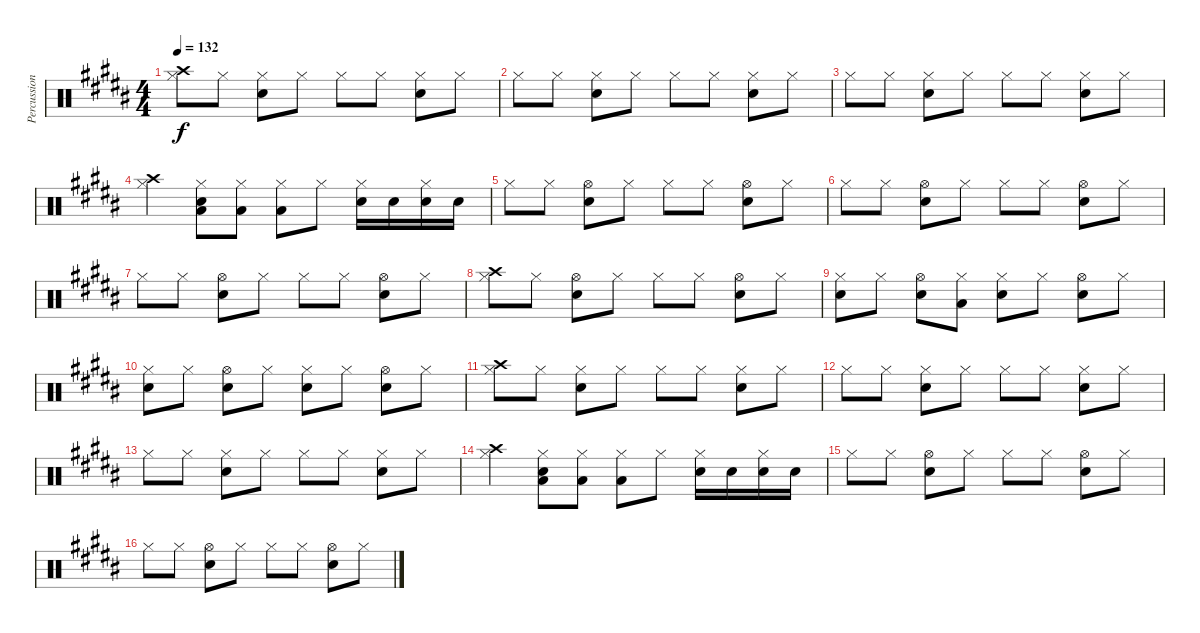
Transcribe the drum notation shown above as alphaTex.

\track ("Percussion (Gelnn Porter)" "Percussion") {instrument percussion}
\staff {score}
\articulation defaults
\ts (4 4)
\tempo 132
\clef neutral
\ks b
("Crash high (hit)" "Hi-Hat (closed)").8{dy f} "Hi-Hat (closed)".8 ("Hi-Hat (closed)" "Snare (hit) 2").8 "Hi-Hat (closed)".8 "Hi-Hat (closed)".8 "Hi-Hat (closed)".8 ("Hi-Hat (closed)" "Snare (hit) 2").8 "Hi-Hat (closed)".8 |
"Hi-Hat (closed)".8 "Hi-Hat (closed)".8 ("Hi-Hat (closed)" "Snare (hit) 2").8 "Hi-Hat (closed)".8 "Hi-Hat (closed)".8 "Hi-Hat (closed)".8 ("Hi-Hat (closed)" "Snare (hit) 2").8 "Hi-Hat (closed)".8 |
"Hi-Hat (closed)".8 "Hi-Hat (closed)".8 ("Hi-Hat (closed)" "Snare (hit) 2").8 "Hi-Hat (closed)".8 "Hi-Hat (closed)".8 "Hi-Hat (closed)".8 ("Hi-Hat (closed)" "Snare (hit) 2").8 "Hi-Hat (closed)".8 |
("Crash high (hit)" "Hi-Hat (closed)").4 ("Hi-Hat (closed)" "Low Tom (hit)" "Snare (hit) 2").8 ("Hi-Hat (closed)" "Low Tom (hit)").8 ("Hi-Hat (closed)" "Low Tom (hit)").8 "Hi-Hat (closed)".8 ("Hi-Hat (closed)" "Snare (hit) 2").16 "Snare (hit) 2".16 ("Hi-Hat (closed)" "Snare (hit) 2").16 "Snare (hit) 2".16 |
"Hi-Hat (closed)".8 "Hi-Hat (closed)".8 ("Hi-Hat (open)" "Snare (hit) 2").8 "Hi-Hat (closed)".8 "Hi-Hat (closed)".8 "Hi-Hat (closed)".8 ("Hi-Hat (open)" "Snare (hit) 2").8 "Hi-Hat (closed)".8 |
"Hi-Hat (closed)".8 "Hi-Hat (closed)".8 ("Hi-Hat (open)" "Snare (hit) 2").8 "Hi-Hat (closed)".8 "Hi-Hat (closed)".8 "Hi-Hat (closed)".8 ("Hi-Hat (open)" "Snare (hit) 2").8 "Hi-Hat (closed)".8 |
"Hi-Hat (closed)".8 "Hi-Hat (closed)".8 ("Hi-Hat (open)" "Snare (hit) 2").8 "Hi-Hat (closed)".8 "Hi-Hat (closed)".8 "Hi-Hat (closed)".8 ("Hi-Hat (open)" "Snare (hit) 2").8 "Hi-Hat (closed)".8 |
("Crash high (hit)" "Hi-Hat (closed)").8 "Hi-Hat (closed)".8 ("Hi-Hat (open)" "Snare (hit) 2").8 "Hi-Hat (closed)".8 "Hi-Hat (closed)".8 "Hi-Hat (closed)".8 ("Hi-Hat (open)" "Snare (hit) 2").8 "Hi-Hat (closed)".8 |
("Hi-Hat (closed)" "Snare (hit) 2").8 "Hi-Hat (closed)".8 ("Hi-Hat (open)" "Snare (hit) 2").8 ("Hi-Hat (closed)" "Low Tom (hit)").8 ("Hi-Hat (closed)" "Snare (hit) 2").8 "Hi-Hat (closed)".8 ("Hi-Hat (open)" "Snare (hit) 2").8 "Hi-Hat (closed)".8 |
("Hi-Hat (closed)" "Snare (hit) 2").8 "Hi-Hat (closed)".8 ("Hi-Hat (open)" "Snare (hit) 2").8 "Hi-Hat (closed)".8 ("Hi-Hat (closed)" "Snare (hit) 2").8 "Hi-Hat (closed)".8 ("Hi-Hat (open)" "Snare (hit) 2").8 "Hi-Hat (closed)".8 |
("Crash high (hit)" "Hi-Hat (closed)").8 "Hi-Hat (closed)".8 ("Hi-Hat (closed)" "Snare (hit) 2").8 "Hi-Hat (closed)".8 "Hi-Hat (closed)".8 "Hi-Hat (closed)".8 ("Hi-Hat (closed)" "Snare (hit) 2").8 "Hi-Hat (closed)".8 |
"Hi-Hat (closed)".8 "Hi-Hat (closed)".8 ("Hi-Hat (closed)" "Snare (hit) 2").8 "Hi-Hat (closed)".8 "Hi-Hat (closed)".8 "Hi-Hat (closed)".8 ("Hi-Hat (closed)" "Snare (hit) 2").8 "Hi-Hat (closed)".8 |
"Hi-Hat (closed)".8 "Hi-Hat (closed)".8 ("Hi-Hat (closed)" "Snare (hit) 2").8 "Hi-Hat (closed)".8 "Hi-Hat (closed)".8 "Hi-Hat (closed)".8 ("Hi-Hat (closed)" "Snare (hit) 2").8 "Hi-Hat (closed)".8 |
("Crash high (hit)" "Hi-Hat (closed)").4 ("Hi-Hat (closed)" "Low Tom (hit)" "Snare (hit) 2").8 ("Hi-Hat (closed)" "Low Tom (hit)").8 ("Hi-Hat (closed)" "Low Tom (hit)").8 "Hi-Hat (closed)".8 ("Hi-Hat (closed)" "Snare (hit) 2").16 "Snare (hit) 2".16 ("Hi-Hat (closed)" "Snare (hit) 2").16 "Snare (hit) 2".16 |
"Hi-Hat (closed)".8 "Hi-Hat (closed)".8 ("Hi-Hat (open)" "Snare (hit) 2").8 "Hi-Hat (closed)".8 "Hi-Hat (closed)".8 "Hi-Hat (closed)".8 ("Hi-Hat (open)" "Snare (hit) 2").8 "Hi-Hat (closed)".8 |
"Hi-Hat (closed)".8 "Hi-Hat (closed)".8 ("Hi-Hat (open)" "Snare (hit) 2").8 "Hi-Hat (closed)".8 "Hi-Hat (closed)".8 "Hi-Hat (closed)".8 ("Hi-Hat (open)" "Snare (hit) 2").8 "Hi-Hat (closed)".8
